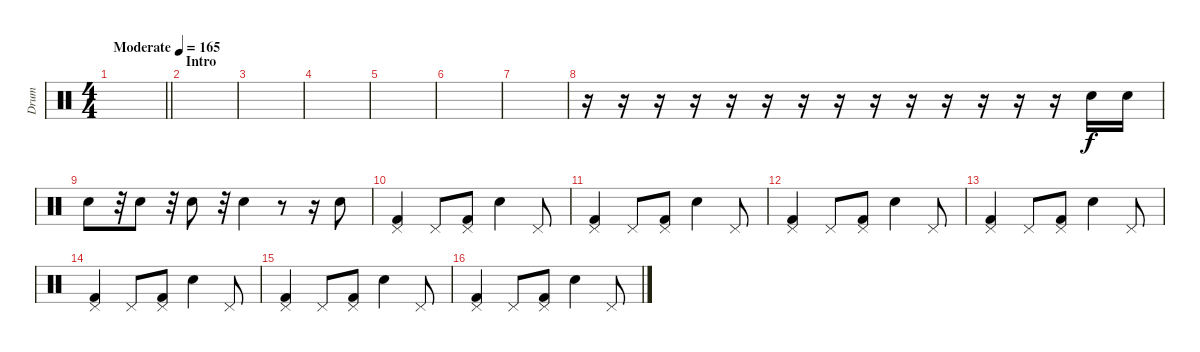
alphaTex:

\track ("Drum" "Drum") {instrument percussion}
\staff {score}
\articulation defaults
\ts (4 4)
\tempo (165 "Moderate")
\clef neutral
\barLineRight lightlight
\ks c
|
\section ("" "Intro")
|
|
|
|
|
|
r.16 r.16 r.16 r.16 r.16 r.16 r.16 r.16 r.16 r.16 r.16 r.16 r.16 r.16 "Electric Snare (hit)".16 "Electric Snare (hit)".16 |
"Electric Snare (hit)".8 r.32 "Electric Snare (hit)".8 r.32 "Electric Snare (hit)".8 r.32 "Electric Snare (hit)".4 r.8 r.16 "Electric Snare (hit)".8 |
("Kick (hit) 2" "Pedal Hi-Hat (hit)").4 "Pedal Hi-Hat (hit)".8 ("Kick (hit) 2" "Pedal Hi-Hat (hit)").8 "Electric Snare (hit)".4 "Pedal Hi-Hat (hit)".8 |
("Kick (hit) 2" "Pedal Hi-Hat (hit)").4 "Pedal Hi-Hat (hit)".8 ("Kick (hit) 2" "Pedal Hi-Hat (hit)").8 "Electric Snare (hit)".4 "Pedal Hi-Hat (hit)".8 |
("Kick (hit) 2" "Pedal Hi-Hat (hit)").4 "Pedal Hi-Hat (hit)".8 ("Kick (hit) 2" "Pedal Hi-Hat (hit)").8 "Electric Snare (hit)".4 "Pedal Hi-Hat (hit)".8 |
("Kick (hit) 2" "Pedal Hi-Hat (hit)").4 "Pedal Hi-Hat (hit)".8 ("Kick (hit) 2" "Pedal Hi-Hat (hit)").8 "Electric Snare (hit)".4 "Pedal Hi-Hat (hit)".8 |
("Kick (hit) 2" "Pedal Hi-Hat (hit)").4 "Pedal Hi-Hat (hit)".8 ("Kick (hit) 2" "Pedal Hi-Hat (hit)").8 "Electric Snare (hit)".4 "Pedal Hi-Hat (hit)".8 |
("Kick (hit) 2" "Pedal Hi-Hat (hit)").4 "Pedal Hi-Hat (hit)".8 ("Kick (hit) 2" "Pedal Hi-Hat (hit)").8 "Electric Snare (hit)".4 "Pedal Hi-Hat (hit)".8 |
("Kick (hit) 2" "Pedal Hi-Hat (hit)").4 "Pedal Hi-Hat (hit)".8 ("Kick (hit) 2" "Pedal Hi-Hat (hit)").8 "Electric Snare (hit)".4 "Pedal Hi-Hat (hit)".8
